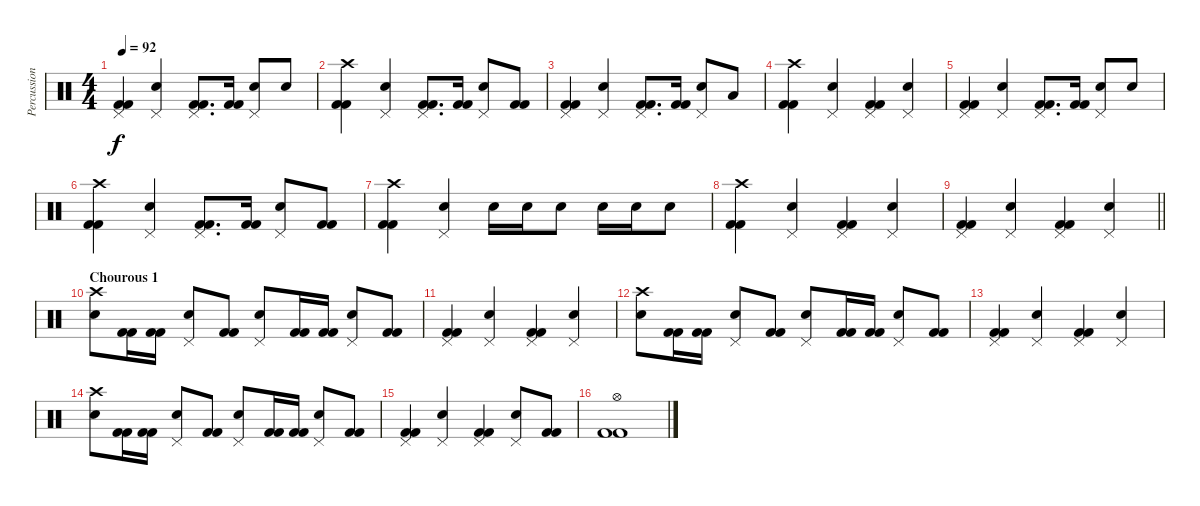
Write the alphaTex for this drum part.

\track ("Percussion" "Percussion") {instrument percussion}
\staff {score}
\articulation defaults
\ts (4 4)
\tempo 92
\clef neutral
\ks c
("Pedal Hi-Hat (hit)" "Kick (hit) 2" "Kick (hit) 2").4{dy f} ("Pedal Hi-Hat (hit)" "Electric Snare (hit)").4 ("Pedal Hi-Hat (hit)" "Kick (hit) 2" "Kick (hit) 2").8{d} ("Kick (hit) 2" "Kick (hit) 2").16 ("Pedal Hi-Hat (hit)" "Electric Snare (hit)").8 "Electric Snare (hit)".8 |
("Crash high (hit)" "Kick (hit) 2" "Kick (hit) 2").4 ("Pedal Hi-Hat (hit)" "Electric Snare (hit)").4 ("Pedal Hi-Hat (hit)" "Kick (hit) 2" "Kick (hit) 2").8{d} ("Kick (hit) 2" "Kick (hit) 2").16 ("Pedal Hi-Hat (hit)" "Electric Snare (hit)").8 ("Kick (hit) 2" "Kick (hit) 2").8 |
("Pedal Hi-Hat (hit)" "Kick (hit) 2" "Kick (hit) 2").4 ("Pedal Hi-Hat (hit)" "Electric Snare (hit)").4 ("Pedal Hi-Hat (hit)" "Kick (hit) 2" "Kick (hit) 2").8{d} ("Kick (hit) 2" "Kick (hit) 2").16 ("Pedal Hi-Hat (hit)" "Electric Snare (hit)").8 "Low Tom (hit)".8 |
("Crash high (hit)" "Kick (hit) 2" "Kick (hit) 2").4 ("Pedal Hi-Hat (hit)" "Electric Snare (hit)").4 ("Pedal Hi-Hat (hit)" "Kick (hit) 2" "Kick (hit) 2").4 ("Pedal Hi-Hat (hit)" "Electric Snare (hit)").4 |
("Pedal Hi-Hat (hit)" "Kick (hit) 2" "Kick (hit) 2").4 ("Pedal Hi-Hat (hit)" "Electric Snare (hit)").4 ("Pedal Hi-Hat (hit)" "Kick (hit) 2" "Kick (hit) 2").8{d} ("Kick (hit) 2" "Kick (hit) 2").16 ("Pedal Hi-Hat (hit)" "Electric Snare (hit)").8 "Electric Snare (hit)".8 |
("Crash high (hit)" "Kick (hit) 2" "Kick (hit) 2").4 ("Pedal Hi-Hat (hit)" "Electric Snare (hit)").4 ("Pedal Hi-Hat (hit)" "Kick (hit) 2" "Kick (hit) 2").8{d} ("Kick (hit) 2" "Kick (hit) 2").16 ("Pedal Hi-Hat (hit)" "Electric Snare (hit)").8 ("Kick (hit) 2" "Kick (hit) 2").8 |
("Crash high (hit)" "Kick (hit) 2" "Kick (hit) 2").4 ("Pedal Hi-Hat (hit)" "Electric Snare (hit)").4 "Electric Snare (hit)".16 "Electric Snare (hit)".16 "Electric Snare (hit)".8 "Electric Snare (hit)".16 "Electric Snare (hit)".16 "Electric Snare (hit)".8 |
("Crash high (hit)" "Kick (hit) 2" "Kick (hit) 2").4 ("Pedal Hi-Hat (hit)" "Electric Snare (hit)").4 ("Pedal Hi-Hat (hit)" "Kick (hit) 2" "Kick (hit) 2").4 ("Pedal Hi-Hat (hit)" "Electric Snare (hit)").4 |
\barLineRight lightlight
("Pedal Hi-Hat (hit)" "Kick (hit) 2" "Kick (hit) 2").4 ("Pedal Hi-Hat (hit)" "Electric Snare (hit)").4 ("Pedal Hi-Hat (hit)" "Kick (hit) 2" "Kick (hit) 2").4 ("Pedal Hi-Hat (hit)" "Electric Snare (hit)").4 |
\section ("" "Chourous 1")
("Crash high (hit)" "Electric Snare (hit)").8 ("Kick (hit) 2" "Kick (hit) 2").16 ("Kick (hit) 2" "Kick (hit) 2").16 ("Pedal Hi-Hat (hit)" "Electric Snare (hit)").8 ("Kick (hit) 2" "Kick (hit) 2").8 ("Pedal Hi-Hat (hit)" "Electric Snare (hit)").8 ("Kick (hit) 2" "Kick (hit) 2").16 ("Kick (hit) 2" "Kick (hit) 2").16 ("Pedal Hi-Hat (hit)" "Electric Snare (hit)").8 ("Kick (hit) 2" "Kick (hit) 2").8 |
("Pedal Hi-Hat (hit)" "Kick (hit) 2" "Kick (hit) 2").4 ("Pedal Hi-Hat (hit)" "Electric Snare (hit)").4 ("Pedal Hi-Hat (hit)" "Kick (hit) 2" "Kick (hit) 2").4 ("Pedal Hi-Hat (hit)" "Electric Snare (hit)").4 |
("Crash high (hit)" "Electric Snare (hit)").8 ("Kick (hit) 2" "Kick (hit) 2").16 ("Kick (hit) 2" "Kick (hit) 2").16 ("Pedal Hi-Hat (hit)" "Electric Snare (hit)").8 ("Kick (hit) 2" "Kick (hit) 2").8 ("Pedal Hi-Hat (hit)" "Electric Snare (hit)").8 ("Kick (hit) 2" "Kick (hit) 2").16 ("Kick (hit) 2" "Kick (hit) 2").16 ("Pedal Hi-Hat (hit)" "Electric Snare (hit)").8 ("Kick (hit) 2" "Kick (hit) 2").8 |
("Pedal Hi-Hat (hit)" "Kick (hit) 2" "Kick (hit) 2").4 ("Pedal Hi-Hat (hit)" "Electric Snare (hit)").4 ("Pedal Hi-Hat (hit)" "Kick (hit) 2" "Kick (hit) 2").4 ("Pedal Hi-Hat (hit)" "Electric Snare (hit)").4 |
("Crash high (hit)" "Electric Snare (hit)").8 ("Kick (hit) 2" "Kick (hit) 2").16 ("Kick (hit) 2" "Kick (hit) 2").16 ("Pedal Hi-Hat (hit)" "Electric Snare (hit)").8 ("Kick (hit) 2" "Kick (hit) 2").8 ("Pedal Hi-Hat (hit)" "Electric Snare (hit)").8 ("Kick (hit) 2" "Kick (hit) 2").16 ("Kick (hit) 2" "Kick (hit) 2").16 ("Pedal Hi-Hat (hit)" "Electric Snare (hit)").8 ("Kick (hit) 2" "Kick (hit) 2").8 |
("Pedal Hi-Hat (hit)" "Kick (hit) 2" "Kick (hit) 2").4 ("Pedal Hi-Hat (hit)" "Electric Snare (hit)").4 ("Pedal Hi-Hat (hit)" "Kick (hit) 2" "Kick (hit) 2").4 ("Pedal Hi-Hat (hit)" "Electric Snare (hit)").8 ("Kick (hit) 2" "Kick (hit) 2").8 |
("Hi-Hat (open)" "Kick (hit) 2" "Kick (hit) 2").1
